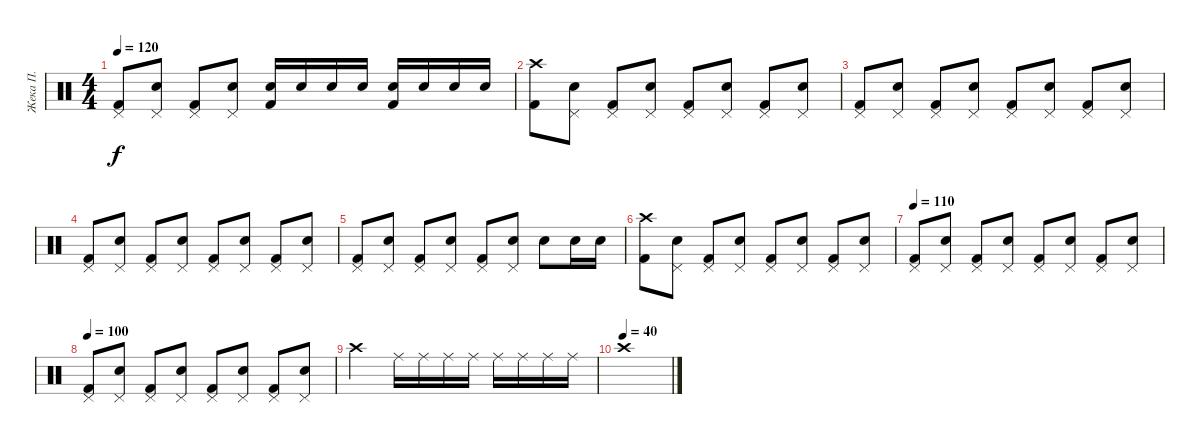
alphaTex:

\track ("Жека П." "Жека П.") {instrument percussion}
\staff {score}
\articulation defaults
\ts (4 4)
\tempo 120
\clef neutral
\ks c
("Pedal Hi-Hat (hit)" "Kick (hit) 2").8{dy f} ("Pedal Hi-Hat (hit)" "Snare (hit) 2").8 ("Pedal Hi-Hat (hit)" "Kick (hit) 2").8 ("Pedal Hi-Hat (hit)" "Snare (hit) 2").8 ("Snare (hit) 2" "Kick (hit) 2").16 "Snare (hit) 2".16 "Snare (hit) 2".16 "Snare (hit) 2".16 ("Snare (hit) 2" "Kick (hit) 2").16 "Snare (hit) 2".16 "Snare (hit) 2".16 "Snare (hit) 2".16 |
("Crash high (hit)" "Kick (hit) 2").8 ("Pedal Hi-Hat (hit)" "Snare (hit) 2").8 ("Pedal Hi-Hat (hit)" "Kick (hit) 2").8 ("Pedal Hi-Hat (hit)" "Snare (hit) 2").8 ("Pedal Hi-Hat (hit)" "Kick (hit) 2").8 ("Pedal Hi-Hat (hit)" "Snare (hit) 2").8 ("Pedal Hi-Hat (hit)" "Kick (hit) 2").8 ("Pedal Hi-Hat (hit)" "Snare (hit) 2").8 |
("Pedal Hi-Hat (hit)" "Kick (hit) 2").8 ("Pedal Hi-Hat (hit)" "Snare (hit) 2").8 ("Pedal Hi-Hat (hit)" "Kick (hit) 2").8 ("Pedal Hi-Hat (hit)" "Snare (hit) 2").8 ("Pedal Hi-Hat (hit)" "Kick (hit) 2").8 ("Pedal Hi-Hat (hit)" "Snare (hit) 2").8 ("Pedal Hi-Hat (hit)" "Kick (hit) 2").8 ("Pedal Hi-Hat (hit)" "Snare (hit) 2").8 |
("Pedal Hi-Hat (hit)" "Kick (hit) 2").8 ("Pedal Hi-Hat (hit)" "Snare (hit) 2").8 ("Pedal Hi-Hat (hit)" "Kick (hit) 2").8 ("Pedal Hi-Hat (hit)" "Snare (hit) 2").8 ("Pedal Hi-Hat (hit)" "Kick (hit) 2").8 ("Pedal Hi-Hat (hit)" "Snare (hit) 2").8 ("Pedal Hi-Hat (hit)" "Kick (hit) 2").8 ("Pedal Hi-Hat (hit)" "Snare (hit) 2").8 |
("Pedal Hi-Hat (hit)" "Kick (hit) 2").8 ("Pedal Hi-Hat (hit)" "Snare (hit) 2").8 ("Pedal Hi-Hat (hit)" "Kick (hit) 2").8 ("Pedal Hi-Hat (hit)" "Snare (hit) 2").8 ("Pedal Hi-Hat (hit)" "Kick (hit) 2").8 ("Pedal Hi-Hat (hit)" "Snare (hit) 2").8 "Snare (hit) 2".8 "Snare (hit) 2".16 "Snare (hit) 2".16 |
("Crash high (hit)" "Kick (hit) 2").8 ("Pedal Hi-Hat (hit)" "Snare (hit) 2").8 ("Pedal Hi-Hat (hit)" "Kick (hit) 2").8 ("Pedal Hi-Hat (hit)" "Snare (hit) 2").8 ("Pedal Hi-Hat (hit)" "Kick (hit) 2").8 ("Pedal Hi-Hat (hit)" "Snare (hit) 2").8 ("Pedal Hi-Hat (hit)" "Kick (hit) 2").8 ("Pedal Hi-Hat (hit)" "Snare (hit) 2").8 |
\tempo 110
("Pedal Hi-Hat (hit)" "Kick (hit) 2").8 ("Pedal Hi-Hat (hit)" "Snare (hit) 2").8 ("Pedal Hi-Hat (hit)" "Kick (hit) 2").8 ("Pedal Hi-Hat (hit)" "Snare (hit) 2").8 ("Pedal Hi-Hat (hit)" "Kick (hit) 2").8 ("Pedal Hi-Hat (hit)" "Snare (hit) 2").8 ("Pedal Hi-Hat (hit)" "Kick (hit) 2").8 ("Pedal Hi-Hat (hit)" "Snare (hit) 2").8 |
\tempo 100
("Pedal Hi-Hat (hit)" "Kick (hit) 2").8 ("Pedal Hi-Hat (hit)" "Snare (hit) 2").8 ("Pedal Hi-Hat (hit)" "Kick (hit) 2").8 ("Pedal Hi-Hat (hit)" "Snare (hit) 2").8 ("Pedal Hi-Hat (hit)" "Kick (hit) 2").8 ("Pedal Hi-Hat (hit)" "Snare (hit) 2").8 ("Pedal Hi-Hat (hit)" "Kick (hit) 2").8 ("Pedal Hi-Hat (hit)" "Snare (hit) 2").8 |
"Crash high (hit)".2 "Ride (middle)".16 "Ride (middle)".16 "Ride (middle)".16 "Ride (middle)".16 "Ride (middle)".16 "Ride (middle)".16 "Ride (middle)".16 "Ride (middle)".16 |
\tempo (40)
"Crash high (hit)".1
